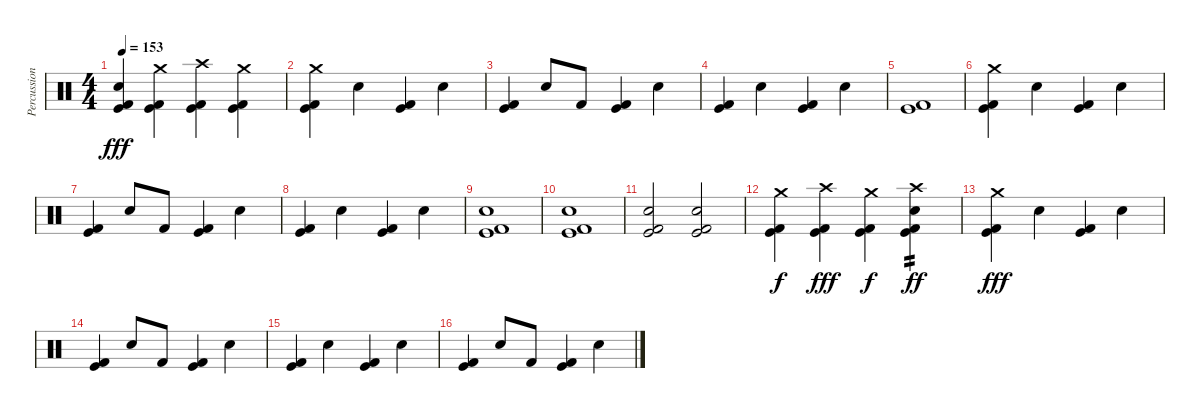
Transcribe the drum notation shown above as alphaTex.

\track ("Percussion" "Percussion") {instrument percussion}
\staff {score}
\articulation defaults
\ts (4 4)
\tempo 153
\clef neutral
\ks c
("Snare (hit) 2" "Kick (hit)" "Kick (hit) 2").4{dy fff} ("Crash medium (hit)" "Kick (hit)" "Kick (hit) 2").4 ("Crash high (hit)" "Kick (hit)" "Kick (hit) 2").4 ("Crash medium (hit)" "Kick (hit)" "Kick (hit) 2").4 |
("Crash medium (hit)" "Kick (hit)" "Kick (hit) 2").4 "Snare (hit) 2".4 ("Kick (hit)" "Kick (hit) 2").4 "Snare (hit) 2".4 |
("Kick (hit)" "Kick (hit) 2").4 "Snare (hit) 2".8 "Kick (hit) 2".8 ("Kick (hit)" "Kick (hit) 2").4 "Snare (hit) 2".4 |
("Kick (hit)" "Kick (hit) 2").4 "Snare (hit) 2".4 ("Kick (hit)" "Kick (hit) 2").4 "Snare (hit) 2".4 |
("Kick (hit)" "Kick (hit) 2").1 |
("Crash medium (hit)" "Kick (hit)" "Kick (hit) 2").4 "Snare (hit) 2".4 ("Kick (hit)" "Kick (hit) 2").4 "Snare (hit) 2".4 |
("Kick (hit)" "Kick (hit) 2").4 "Snare (hit) 2".8 "Kick (hit) 2".8 ("Kick (hit)" "Kick (hit) 2").4 "Snare (hit) 2".4 |
("Kick (hit)" "Kick (hit) 2").4 "Snare (hit) 2".4 ("Kick (hit)" "Kick (hit) 2").4 "Snare (hit) 2".4 |
("Snare (hit) 2" "Kick (hit)" "Kick (hit) 2").1 |
("Snare (hit) 2" "Kick (hit)" "Kick (hit) 2").1 |
("Snare (hit) 2" "Kick (hit)" "Kick (hit) 2").2 ("Snare (hit) 2" "Kick (hit)" "Kick (hit) 2").2 |
("Crash medium (hit)" "Kick (hit)" "Kick (hit) 2").4{dy f} ("Crash high (hit)" "Kick (hit)" "Kick (hit) 2").4{dy fff} ("Crash medium (hit)" "Kick (hit)" "Kick (hit) 2").4{dy f} ("Crash high (hit)" "Snare (hit) 2" "Kick (hit)" "Kick (hit) 2").4{tp 2 dy ff} |
("Crash medium (hit)" "Kick (hit)" "Kick (hit) 2").4{dy fff} "Snare (hit) 2".4 ("Kick (hit)" "Kick (hit) 2").4 "Snare (hit) 2".4 |
("Kick (hit)" "Kick (hit) 2").4 "Snare (hit) 2".8 "Kick (hit) 2".8 ("Kick (hit)" "Kick (hit) 2").4 "Snare (hit) 2".4 |
("Kick (hit)" "Kick (hit) 2").4 "Snare (hit) 2".4 ("Kick (hit)" "Kick (hit) 2").4 "Snare (hit) 2".4 |
("Kick (hit)" "Kick (hit) 2").4 "Snare (hit) 2".8 "Kick (hit) 2".8 ("Kick (hit)" "Kick (hit) 2").4 "Snare (hit) 2".4
